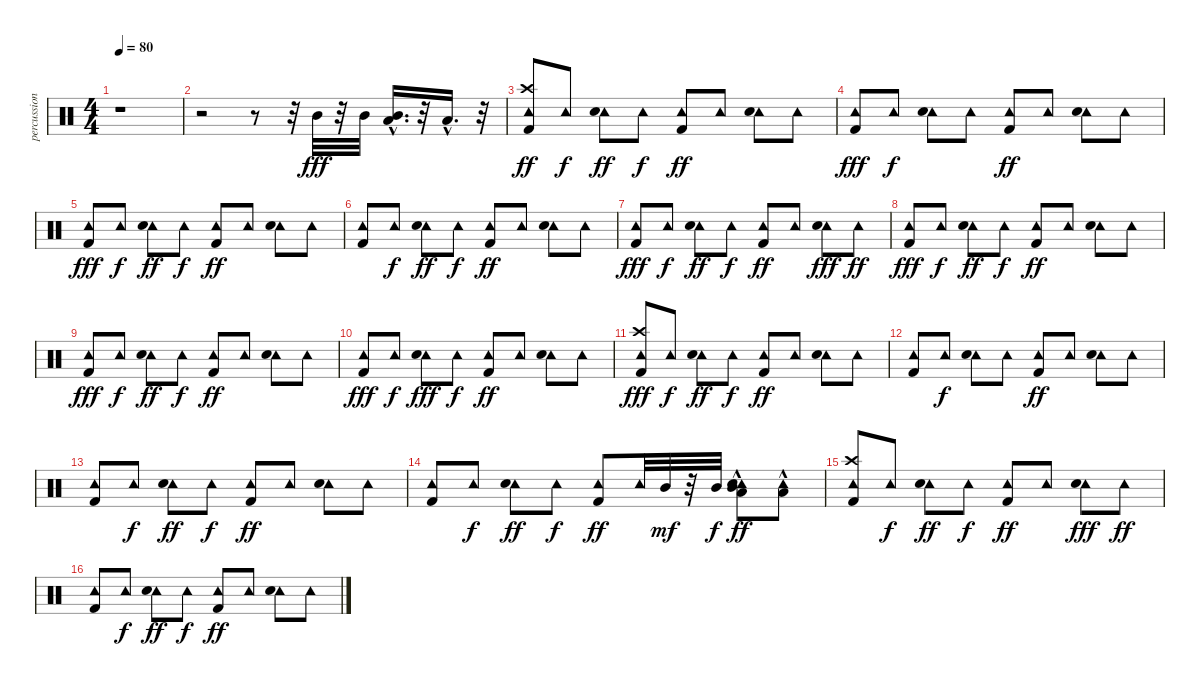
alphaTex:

\track ("percussion" "percussion") {instrument percussion}
\staff {score}
\articulation defaults
\ts (4 4)
\tempo 80
\clef neutral
\ks c
r.1{dy fff} |
r.2 r.8 r.32 "Mid Tom (hit)".32 r.32 "Mid Tom (hit)".32 ("Mid Tom (hit)" "Low Tom (hit)"{hac}).16{d} r.32 "Low Tom (hit)"{hac}.16{d} r.32 |
("Kick (hit) 2" "Crash high (hit)" "Tambourine (hit)").8{dy ff} "Tambourine (hit)".8{dy f} ("Tambourine (hit)" "Electric Snare (hit)").8{dy ff} "Tambourine (hit)".8{dy f} ("Kick (hit) 2" "Tambourine (hit)").8{dy ff} "Tambourine (hit)".8 ("Tambourine (hit)" "Electric Snare (hit)").8 "Tambourine (hit)".8 |
("Kick (hit) 2" "Tambourine (hit)").8{dy fff} "Tambourine (hit)".8{dy f} ("Tambourine (hit)" "Electric Snare (hit)").8 "Tambourine (hit)".8 ("Kick (hit) 2" "Tambourine (hit)").8{dy ff} "Tambourine (hit)".8 ("Tambourine (hit)" "Electric Snare (hit)").8 "Tambourine (hit)".8 |
("Kick (hit) 2" "Tambourine (hit)").8{dy fff} "Tambourine (hit)".8{dy f} ("Tambourine (hit)" "Electric Snare (hit)").8{dy ff} "Tambourine (hit)".8{dy f} ("Kick (hit) 2" "Tambourine (hit)").8{dy ff} "Tambourine (hit)".8 ("Tambourine (hit)" "Electric Snare (hit)").8 "Tambourine (hit)".8 |
("Kick (hit) 2" "Tambourine (hit)").8 "Tambourine (hit)".8{dy f} ("Tambourine (hit)" "Electric Snare (hit)").8{dy ff} "Tambourine (hit)".8{dy f} ("Kick (hit) 2" "Tambourine (hit)").8{dy ff} "Tambourine (hit)".8 ("Tambourine (hit)" "Electric Snare (hit)").8 "Tambourine (hit)".8 |
("Kick (hit) 2" "Tambourine (hit)").8{dy fff} "Tambourine (hit)".8{dy f} ("Tambourine (hit)" "Electric Snare (hit)").8{dy ff} "Tambourine (hit)".8{dy f} ("Kick (hit) 2" "Tambourine (hit)").8{dy ff} "Tambourine (hit)".8 ("Tambourine (hit)" "Electric Snare (hit)").8{dy fff} "Tambourine (hit)".8{dy ff} |
("Kick (hit) 2" "Tambourine (hit)").8{dy fff} "Tambourine (hit)".8{dy f} ("Tambourine (hit)" "Electric Snare (hit)").8{dy ff} "Tambourine (hit)".8{dy f} ("Kick (hit) 2" "Tambourine (hit)").8{dy ff} "Tambourine (hit)".8 ("Tambourine (hit)" "Electric Snare (hit)").8 "Tambourine (hit)".8 |
("Kick (hit) 2" "Tambourine (hit)").8{dy fff} "Tambourine (hit)".8{dy f} ("Tambourine (hit)" "Electric Snare (hit)").8{dy ff} "Tambourine (hit)".8{dy f} ("Kick (hit) 2" "Tambourine (hit)").8{dy ff} "Tambourine (hit)".8 ("Tambourine (hit)" "Electric Snare (hit)").8 "Tambourine (hit)".8 |
("Kick (hit) 2" "Tambourine (hit)").8{dy fff} "Tambourine (hit)".8{dy f} ("Tambourine (hit)" "Electric Snare (hit)").8{dy fff} "Tambourine (hit)".8{dy f} ("Kick (hit) 2" "Tambourine (hit)").8{dy ff} "Tambourine (hit)".8 ("Tambourine (hit)" "Electric Snare (hit)").8 "Tambourine (hit)".8 |
("Kick (hit) 2" "Crash high (hit)" "Tambourine (hit)").8{dy fff} "Tambourine (hit)".8{dy f} ("Tambourine (hit)" "Electric Snare (hit)").8{dy ff} "Tambourine (hit)".8{dy f} ("Kick (hit) 2" "Tambourine (hit)").8{dy ff} "Tambourine (hit)".8 ("Tambourine (hit)" "Electric Snare (hit)").8 "Tambourine (hit)".8 |
("Kick (hit) 2" "Tambourine (hit)").8 "Tambourine (hit)".8{dy f} ("Tambourine (hit)" "Electric Snare (hit)").8 "Tambourine (hit)".8 ("Kick (hit) 2" "Tambourine (hit)").8{dy ff} "Tambourine (hit)".8 ("Tambourine (hit)" "Electric Snare (hit)").8 "Tambourine (hit)".8 |
("Kick (hit) 2" "Tambourine (hit)").8 "Tambourine (hit)".8{dy f} ("Tambourine (hit)" "Electric Snare (hit)").8{dy ff} "Tambourine (hit)".8{dy f} ("Kick (hit) 2" "Tambourine (hit)").8{dy ff} "Tambourine (hit)".8 ("Tambourine (hit)" "Electric Snare (hit)").8 "Tambourine (hit)".8 |
("Kick (hit) 2" "Tambourine (hit)").8 "Tambourine (hit)".8{dy f} ("Tambourine (hit)" "Electric Snare (hit)").8{dy ff} "Tambourine (hit)".8{dy f} ("Kick (hit) 2" "Tambourine (hit)").8{dy ff} "Tambourine (hit)".32 "Mid Tom (hit)".32{dy mf} r.32 "Mid Tom (hit)".32{dy f} ("Mid Tom (hit)" "Low Tom (hit)"{hac} "Tambourine (hit)" "Electric Snare (hit)").8{dy ff} ("Low Tom (hit)"{hac} "Tambourine (hit)").8 |
("Kick (hit) 2" "Crash high (hit)" "Tambourine (hit)").8 "Tambourine (hit)".8{dy f} ("Tambourine (hit)" "Electric Snare (hit)").8{dy ff} "Tambourine (hit)".8{dy f} ("Kick (hit) 2" "Tambourine (hit)").8{dy ff} "Tambourine (hit)".8 ("Tambourine (hit)" "Electric Snare (hit)").8{dy fff} "Tambourine (hit)".8{dy ff} |
("Kick (hit) 2" "Tambourine (hit)").8 "Tambourine (hit)".8{dy f} ("Tambourine (hit)" "Electric Snare (hit)").8{dy ff} "Tambourine (hit)".8{dy f} ("Kick (hit) 2" "Tambourine (hit)").8{dy ff} "Tambourine (hit)".8 ("Tambourine (hit)" "Electric Snare (hit)").8 "Tambourine (hit)".8
